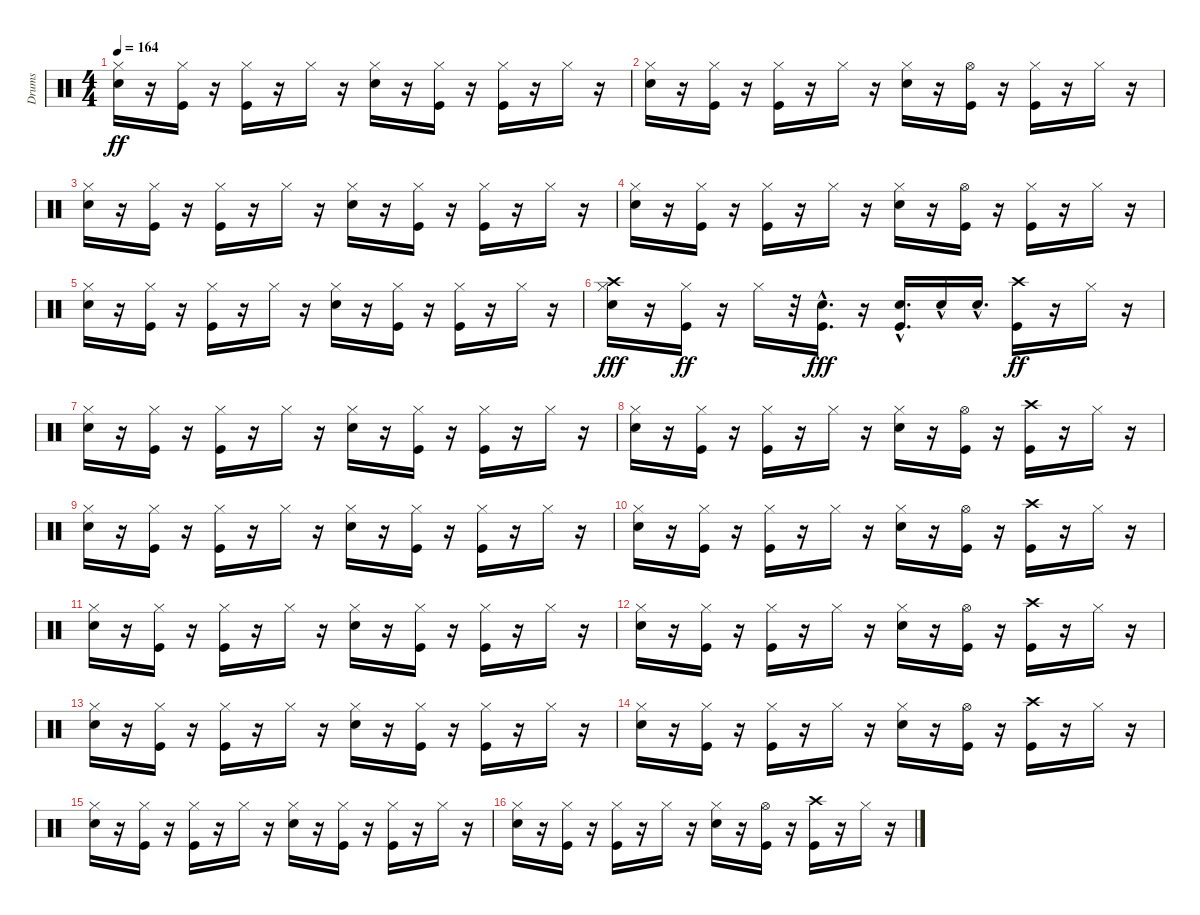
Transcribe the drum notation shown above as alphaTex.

\track ("Drums" "Drums") {instrument percussion}
\staff {score}
\articulation defaults
\ts (4 4)
\tempo 164
\clef neutral
\ks c
("Electric Snare (hit)" "Hi-Hat (closed)").16{dy ff} r.16 ("Kick (hit)" "Hi-Hat (closed)").16 r.16 ("Kick (hit)" "Hi-Hat (closed)").16 r.16 "Hi-Hat (closed)".16 r.16 ("Electric Snare (hit)" "Hi-Hat (closed)").16 r.16 ("Kick (hit)" "Hi-Hat (closed)").16 r.16 ("Kick (hit)" "Hi-Hat (closed)").16 r.16 "Hi-Hat (closed)".16 r.16 |
("Electric Snare (hit)" "Hi-Hat (closed)").16 r.16 ("Kick (hit)" "Hi-Hat (closed)").16 r.16 ("Kick (hit)" "Hi-Hat (closed)").16 r.16 "Hi-Hat (closed)".16 r.16 ("Electric Snare (hit)" "Hi-Hat (closed)").16 r.16 ("Kick (hit)" "Hi-Hat (open)").16 r.16 ("Kick (hit)" "Hi-Hat (closed)").16 r.16 "Hi-Hat (closed)".16 r.16 |
("Electric Snare (hit)" "Hi-Hat (closed)").16 r.16 ("Kick (hit)" "Hi-Hat (closed)").16 r.16 ("Kick (hit)" "Hi-Hat (closed)").16 r.16 "Hi-Hat (closed)".16 r.16 ("Electric Snare (hit)" "Hi-Hat (closed)").16 r.16 ("Kick (hit)" "Hi-Hat (closed)").16 r.16 ("Kick (hit)" "Hi-Hat (closed)").16 r.16 "Hi-Hat (closed)".16 r.16 |
("Electric Snare (hit)" "Hi-Hat (closed)").16 r.16 ("Kick (hit)" "Hi-Hat (closed)").16 r.16 ("Kick (hit)" "Hi-Hat (closed)").16 r.16 "Hi-Hat (closed)".16 r.16 ("Electric Snare (hit)" "Hi-Hat (closed)").16 r.16 ("Kick (hit)" "Hi-Hat (open)").16 r.16 ("Kick (hit)" "Hi-Hat (closed)").16 r.16 "Hi-Hat (closed)".16 r.16 |
("Electric Snare (hit)" "Hi-Hat (closed)").16 r.16 ("Kick (hit)" "Hi-Hat (closed)").16 r.16 ("Kick (hit)" "Hi-Hat (closed)").16 r.16 "Hi-Hat (closed)".16 r.16 ("Electric Snare (hit)" "Hi-Hat (closed)").16 r.16 ("Kick (hit)" "Hi-Hat (closed)").16 r.16 ("Kick (hit)" "Hi-Hat (closed)").16 r.16 "Hi-Hat (closed)".16 r.16 |
("Hi-Hat (closed)" "Crash high (hit)" "Electric Snare (hit)").16{dy fff} r.16 ("Kick (hit)" "Hi-Hat (closed)").16{dy ff} r.16 "Hi-Hat (closed)".16 r.32 ("Electric Snare (hit)"{hac} "Kick (hit)"{hac}).16{d dy fff} r.16 ("Electric Snare (hit)"{hac} "Kick (hit)"{hac}).16{d} "Electric Snare (hit)"{hac}.16 "Electric Snare (hit)"{hac}.16{d} ("Kick (hit)" "Crash high (hit)").16{dy ff} r.16 "Hi-Hat (closed)".16 r.16 |
("Electric Snare (hit)" "Hi-Hat (closed)").16 r.16 ("Kick (hit)" "Hi-Hat (closed)").16 r.16 ("Kick (hit)" "Hi-Hat (closed)").16 r.16 "Hi-Hat (closed)".16 r.16 ("Electric Snare (hit)" "Hi-Hat (closed)").16 r.16 ("Kick (hit)" "Hi-Hat (closed)").16 r.16 ("Kick (hit)" "Hi-Hat (closed)").16 r.16 "Hi-Hat (closed)".16 r.16 |
("Electric Snare (hit)" "Hi-Hat (closed)").16 r.16 ("Kick (hit)" "Hi-Hat (closed)").16 r.16 ("Kick (hit)" "Hi-Hat (closed)").16 r.16 "Hi-Hat (closed)".16 r.16 ("Electric Snare (hit)" "Hi-Hat (closed)").16 r.16 ("Kick (hit)" "Hi-Hat (open)").16 r.16 ("Kick (hit)" "Crash high (hit)").16 r.16 "Hi-Hat (closed)".16 r.16 |
("Electric Snare (hit)" "Hi-Hat (closed)").16 r.16 ("Kick (hit)" "Hi-Hat (closed)").16 r.16 ("Kick (hit)" "Hi-Hat (closed)").16 r.16 "Hi-Hat (closed)".16 r.16 ("Electric Snare (hit)" "Hi-Hat (closed)").16 r.16 ("Kick (hit)" "Hi-Hat (closed)").16 r.16 ("Kick (hit)" "Hi-Hat (closed)").16 r.16 "Hi-Hat (closed)".16 r.16 |
("Electric Snare (hit)" "Hi-Hat (closed)").16 r.16 ("Kick (hit)" "Hi-Hat (closed)").16 r.16 ("Kick (hit)" "Hi-Hat (closed)").16 r.16 "Hi-Hat (closed)".16 r.16 ("Electric Snare (hit)" "Hi-Hat (closed)").16 r.16 ("Kick (hit)" "Hi-Hat (open)").16 r.16 ("Kick (hit)" "Crash high (hit)").16 r.16 "Hi-Hat (closed)".16 r.16 |
("Electric Snare (hit)" "Hi-Hat (closed)").16 r.16 ("Kick (hit)" "Hi-Hat (closed)").16 r.16 ("Kick (hit)" "Hi-Hat (closed)").16 r.16 "Hi-Hat (closed)".16 r.16 ("Electric Snare (hit)" "Hi-Hat (closed)").16 r.16 ("Kick (hit)" "Hi-Hat (closed)").16 r.16 ("Kick (hit)" "Hi-Hat (closed)").16 r.16 "Hi-Hat (closed)".16 r.16 |
("Electric Snare (hit)" "Hi-Hat (closed)").16 r.16 ("Kick (hit)" "Hi-Hat (closed)").16 r.16 ("Kick (hit)" "Hi-Hat (closed)").16 r.16 "Hi-Hat (closed)".16 r.16 ("Electric Snare (hit)" "Hi-Hat (closed)").16 r.16 ("Kick (hit)" "Hi-Hat (open)").16 r.16 ("Kick (hit)" "Crash high (hit)").16 r.16 "Hi-Hat (closed)".16 r.16 |
("Electric Snare (hit)" "Hi-Hat (closed)").16 r.16 ("Kick (hit)" "Hi-Hat (closed)").16 r.16 ("Kick (hit)" "Hi-Hat (closed)").16 r.16 "Hi-Hat (closed)".16 r.16 ("Electric Snare (hit)" "Hi-Hat (closed)").16 r.16 ("Kick (hit)" "Hi-Hat (closed)").16 r.16 ("Kick (hit)" "Hi-Hat (closed)").16 r.16 "Hi-Hat (closed)".16 r.16 |
("Electric Snare (hit)" "Hi-Hat (closed)").16 r.16 ("Kick (hit)" "Hi-Hat (closed)").16 r.16 ("Kick (hit)" "Hi-Hat (closed)").16 r.16 "Hi-Hat (closed)".16 r.16 ("Electric Snare (hit)" "Hi-Hat (closed)").16 r.16 ("Kick (hit)" "Hi-Hat (open)").16 r.16 ("Kick (hit)" "Crash high (hit)").16 r.16 "Hi-Hat (closed)".16 r.16 |
("Electric Snare (hit)" "Hi-Hat (closed)").16 r.16 ("Kick (hit)" "Hi-Hat (closed)").16 r.16 ("Kick (hit)" "Hi-Hat (closed)").16 r.16 "Hi-Hat (closed)".16 r.16 ("Electric Snare (hit)" "Hi-Hat (closed)").16 r.16 ("Kick (hit)" "Hi-Hat (closed)").16 r.16 ("Kick (hit)" "Hi-Hat (closed)").16 r.16 "Hi-Hat (closed)".16 r.16 |
("Electric Snare (hit)" "Hi-Hat (closed)").16 r.16 ("Kick (hit)" "Hi-Hat (closed)").16 r.16 ("Kick (hit)" "Hi-Hat (closed)").16 r.16 "Hi-Hat (closed)".16 r.16 ("Electric Snare (hit)" "Hi-Hat (closed)").16 r.16 ("Kick (hit)" "Hi-Hat (open)").16 r.16 ("Kick (hit)" "Crash high (hit)").16 r.16 "Hi-Hat (closed)".16 r.16
